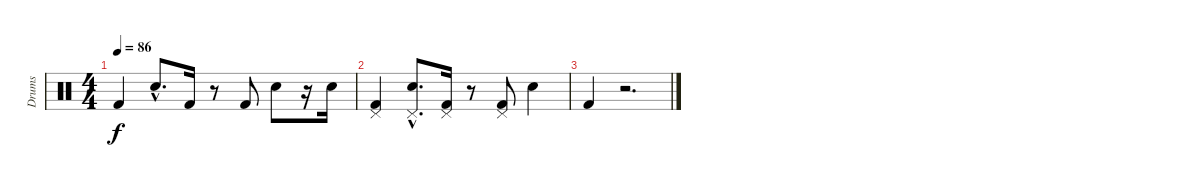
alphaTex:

\track ("Drums" "Drums") {instrument percussion}
\staff {score}
\articulation defaults
\ts (4 4)
\tempo 86
\clef neutral
\ks c "Kick (hit) 2".4{dy f} "Snare (hit) 2"{hac}.8{d} "Kick (hit) 2".16
r.8 "Kick (hit) 2".8 "Snare (hit) 2".8 r.16 "Snare (hit) 2".16 |
("Pedal Hi-Hat (hit)" "Kick (hit) 2").4 ("Pedal Hi-Hat (hit)"{hac} "Snare (hit) 2"{hac}).8{d} ("Pedal Hi-Hat (hit)" "Kick (hit) 2").16 r.8 ("Pedal Hi-Hat (hit)" "Kick (hit) 2").8 "Snare (hit) 2".4 |
"Kick (hit) 2".4 r.2{d}
